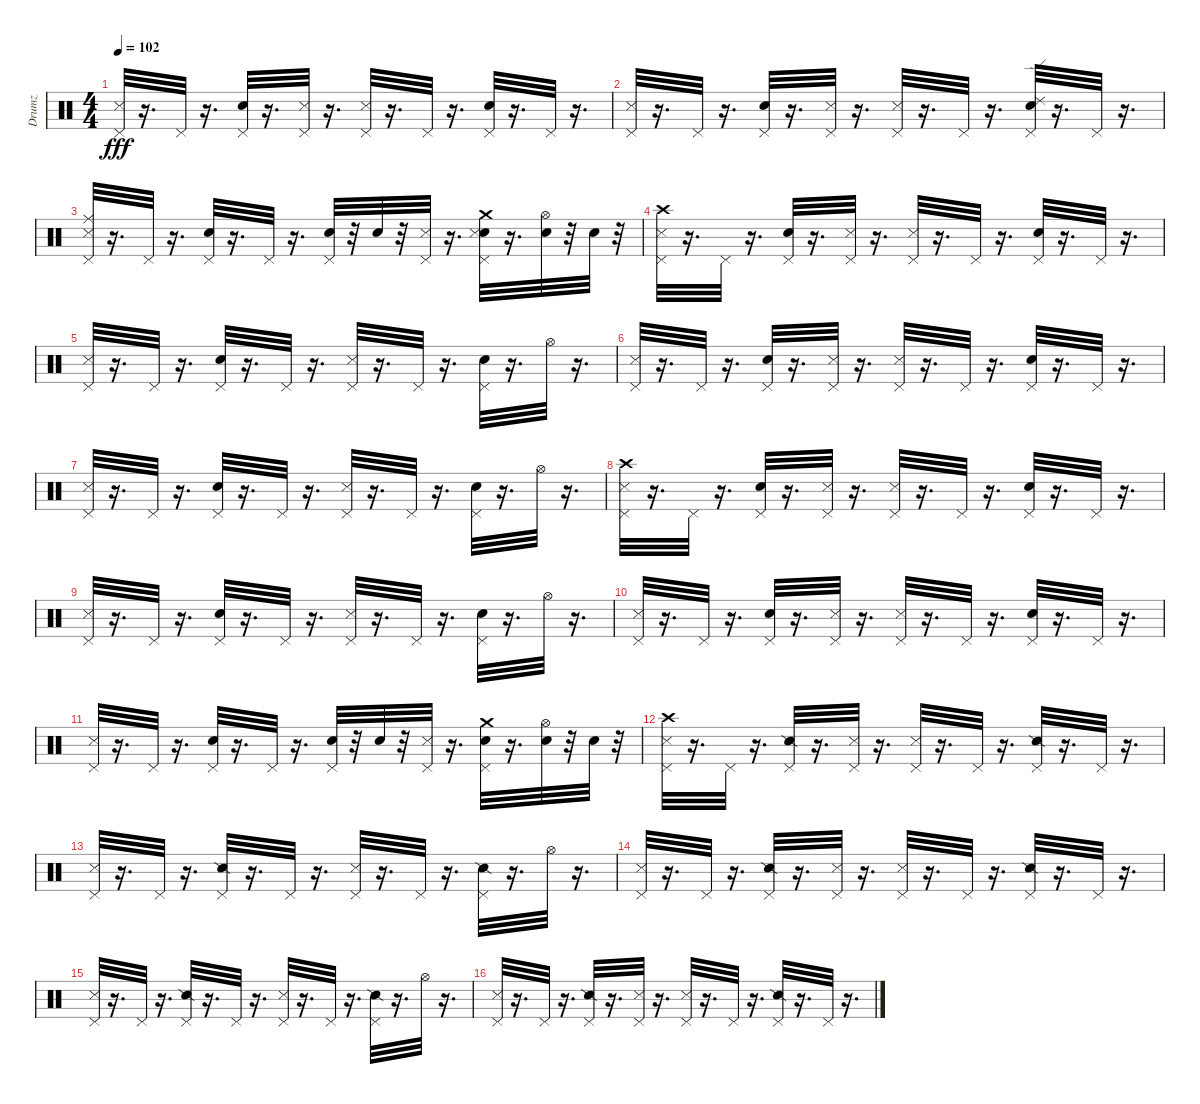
\track ("Drumz" "Drumz") {instrument percussion}
\staff {score}
\articulation defaults
\ts (4 4)
\tempo 102
\clef neutral
\ks c
("Pedal Hi-Hat (hit)" "Metronome (hit)").32{dy fff} r.16{d} "Pedal Hi-Hat (hit)".32 r.16{d} ("Electric Snare (hit)" "Pedal Hi-Hat (hit)").32 r.16{d} ("Pedal Hi-Hat (hit)" "Metronome (hit)").32 r.16{d} ("Metronome (hit)" "Pedal Hi-Hat (hit)").32 r.16{d} "Pedal Hi-Hat (hit)".32 r.16{d} ("Pedal Hi-Hat (hit)" "Electric Snare (hit)").32 r.16{d} "Pedal Hi-Hat (hit)".32 r.16{d} |
("Pedal Hi-Hat (hit)" "Metronome (hit)").32 r.16{d} "Pedal Hi-Hat (hit)".32 r.16{d} ("Pedal Hi-Hat (hit)" "Electric Snare (hit)").32 r.16{d} ("Pedal Hi-Hat (hit)" "Metronome (hit)").32 r.16{d} ("Metronome (hit)" "Pedal Hi-Hat (hit)").32 r.16{d} "Pedal Hi-Hat (hit)".32 r.16{d} ("Ride (edge) 2" "Electric Snare (hit)" "Pedal Hi-Hat (hit)").32 r.16{d} "Pedal Hi-Hat (hit)".32 r.16{d} |
("Ride (middle)" "Pedal Hi-Hat (hit)" "Metronome (hit)").32 r.16{d} "Pedal Hi-Hat (hit)".32 r.16{d} ("Electric Snare (hit)" "Pedal Hi-Hat (hit)").32 r.16{d} "Pedal Hi-Hat (hit)".32 r.16{d} ("Snare (hit) 2" "Pedal Hi-Hat (hit)").32 r.32 "Snare (hit) 2".32 r.32 ("Pedal Hi-Hat (hit)" "Metronome (hit)").32 r.16{d} ("Crash medium (hit)" "Pedal Hi-Hat (hit)" "Electric Snare (hit)" "Metronome (hit)").32 r.16{d} ("Hi-Hat (open)" "Snare (hit) 2").32 r.32 "Snare (hit) 2".32 r.32 |
("Crash high (hit)" "Metronome (hit)" "Pedal Hi-Hat (hit)").32 r.16{d} "Pedal Hi-Hat (hit)".32 r.16{d} ("Snare (hit) 2" "Pedal Hi-Hat (hit)").32 r.16{d} ("Pedal Hi-Hat (hit)" "Metronome (hit)").32 r.16{d} ("Pedal Hi-Hat (hit)" "Metronome (hit)").32 r.16{d} "Pedal Hi-Hat (hit)".32 r.16{d} ("Snare (hit) 2" "Pedal Hi-Hat (hit)").32 r.16{d} "Pedal Hi-Hat (hit)".32 r.16{d} |
("Metronome (hit)" "Pedal Hi-Hat (hit)").32 r.16{d} "Pedal Hi-Hat (hit)".32 r.16{d} ("Snare (hit) 2" "Pedal Hi-Hat (hit)").32 r.16{d} "Pedal Hi-Hat (hit)".32 r.16{d} ("Metronome (hit)" "Pedal Hi-Hat (hit)").32 r.16{d} "Pedal Hi-Hat (hit)".32 r.16{d} ("Pedal Hi-Hat (hit)" "Snare (hit) 2").32 r.16{d} "Hi-Hat (open)".32 r.16{d} |
("Metronome (hit)" "Pedal Hi-Hat (hit)").32 r.16{d} "Pedal Hi-Hat (hit)".32 r.16{d} ("Pedal Hi-Hat (hit)" "Snare (hit) 2").32 r.16{d} ("Metronome (hit)" "Pedal Hi-Hat (hit)").32 r.16{d} ("Metronome (hit)" "Pedal Hi-Hat (hit)").32 r.16{d} "Pedal Hi-Hat (hit)".32 r.16{d} ("Snare (hit) 2" "Pedal Hi-Hat (hit)").32 r.16{d} "Pedal Hi-Hat (hit)".32 r.16{d} |
("Pedal Hi-Hat (hit)" "Metronome (hit)").32 r.16{d} "Pedal Hi-Hat (hit)".32 r.16{d} ("Pedal Hi-Hat (hit)" "Snare (hit) 2").32 r.16{d} "Pedal Hi-Hat (hit)".32 r.16{d} ("Metronome (hit)" "Pedal Hi-Hat (hit)").32 r.16{d} "Pedal Hi-Hat (hit)".32 r.16{d} ("Pedal Hi-Hat (hit)" "Snare (hit) 2").32 r.16{d} "Hi-Hat (open)".32 r.16{d} |
("Crash high (hit)" "Pedal Hi-Hat (hit)" "Metronome (hit)").32 r.16{d} "Pedal Hi-Hat (hit)".32 r.16{d} ("Snare (hit) 2" "Pedal Hi-Hat (hit)").32 r.16{d} ("Metronome (hit)" "Pedal Hi-Hat (hit)").32 r.16{d} ("Pedal Hi-Hat (hit)" "Metronome (hit)").32 r.16{d} "Pedal Hi-Hat (hit)".32 r.16{d} ("Snare (hit) 2" "Pedal Hi-Hat (hit)").32 r.16{d} "Pedal Hi-Hat (hit)".32 r.16{d} |
("Metronome (hit)" "Pedal Hi-Hat (hit)").32 r.16{d} "Pedal Hi-Hat (hit)".32 r.16{d} ("Pedal Hi-Hat (hit)" "Snare (hit) 2").32 r.16{d} "Pedal Hi-Hat (hit)".32 r.16{d} ("Pedal Hi-Hat (hit)" "Metronome (hit)").32 r.16{d} "Pedal Hi-Hat (hit)".32 r.16{d} ("Snare (hit) 2" "Pedal Hi-Hat (hit)").32 r.16{d} "Hi-Hat (open)".32 r.16{d} |
("Pedal Hi-Hat (hit)" "Metronome (hit)").32 r.16{d} "Pedal Hi-Hat (hit)".32 r.16{d} ("Pedal Hi-Hat (hit)" "Snare (hit) 2").32 r.16{d} ("Metronome (hit)" "Pedal Hi-Hat (hit)").32 r.16{d} ("Metronome (hit)" "Pedal Hi-Hat (hit)").32 r.16{d} "Pedal Hi-Hat (hit)".32 r.16{d} ("Snare (hit) 2" "Pedal Hi-Hat (hit)").32 r.16{d} "Pedal Hi-Hat (hit)".32 r.16{d} |
("Pedal Hi-Hat (hit)" "Metronome (hit)").32 r.16{d} "Pedal Hi-Hat (hit)".32 r.16{d} ("Snare (hit) 2" "Pedal Hi-Hat (hit)").32 r.16{d} "Pedal Hi-Hat (hit)".32 r.16{d} ("Snare (hit) 2" "Pedal Hi-Hat (hit)").32 r.32 "Snare (hit) 2".32 r.32 ("Pedal Hi-Hat (hit)" "Metronome (hit)").32 r.16{d} ("Crash medium (hit)" "Pedal Hi-Hat (hit)" "Snare (hit) 2").32 r.16{d} ("Snare (hit) 2" "Hi-Hat (open)").32 r.32 "Snare (hit) 2".32 r.32 |
("Metronome (hit)" "Pedal Hi-Hat (hit)" "Crash high (hit)").32 r.16{d} "Pedal Hi-Hat (hit)".32 r.16{d} ("Pedal Hi-Hat (hit)" "Snare (side stick) 2").32 r.16{d} ("Metronome (hit)" "Pedal Hi-Hat (hit)").32 r.16{d} ("Pedal Hi-Hat (hit)" "Metronome (hit)").32 r.16{d} "Pedal Hi-Hat (hit)".32 r.16{d} ("Snare (side stick) 2" "Pedal Hi-Hat (hit)").32 r.16{d} "Pedal Hi-Hat (hit)".32 r.16{d} |
("Pedal Hi-Hat (hit)" "Metronome (hit)").32 r.16{d} "Pedal Hi-Hat (hit)".32 r.16{d} ("Snare (side stick) 2" "Pedal Hi-Hat (hit)").32 r.16{d} "Pedal Hi-Hat (hit)".32 r.16{d} ("Pedal Hi-Hat (hit)" "Metronome (hit)").32 r.16{d} "Pedal Hi-Hat (hit)".32 r.16{d} ("Snare (side stick) 2" "Pedal Hi-Hat (hit)").32 r.16{d} "Hi-Hat (open)".32 r.16{d} |
("Metronome (hit)" "Pedal Hi-Hat (hit)").32 r.16{d} "Pedal Hi-Hat (hit)".32 r.16{d} ("Pedal Hi-Hat (hit)" "Snare (side stick) 2").32 r.16{d} ("Pedal Hi-Hat (hit)" "Metronome (hit)").32 r.16{d} ("Pedal Hi-Hat (hit)" "Metronome (hit)").32 r.16{d} "Pedal Hi-Hat (hit)".32 r.16{d} ("Snare (side stick) 2" "Pedal Hi-Hat (hit)").32 r.16{d} "Pedal Hi-Hat (hit)".32 r.16{d} |
("Metronome (hit)" "Pedal Hi-Hat (hit)").32 r.16{d} "Pedal Hi-Hat (hit)".32 r.16{d} ("Pedal Hi-Hat (hit)" "Snare (side stick) 2").32 r.16{d} "Pedal Hi-Hat (hit)".32 r.16{d} ("Pedal Hi-Hat (hit)" "Metronome (hit)").32 r.16{d} "Pedal Hi-Hat (hit)".32 r.16{d} ("Pedal Hi-Hat (hit)" "Snare (side stick) 2").32 r.16{d} "Hi-Hat (open)".32 r.16{d} |
("Pedal Hi-Hat (hit)" "Metronome (hit)").32 r.16{d} "Pedal Hi-Hat (hit)".32 r.16{d} ("Snare (side stick) 2" "Pedal Hi-Hat (hit)").32 r.16{d} ("Metronome (hit)" "Pedal Hi-Hat (hit)").32 r.16{d} ("Pedal Hi-Hat (hit)" "Metronome (hit)").32 r.16{d} "Pedal Hi-Hat (hit)".32 r.16{d} ("Snare (side stick) 2" "Pedal Hi-Hat (hit)").32 r.16{d} "Pedal Hi-Hat (hit)".32 r.16{d}
